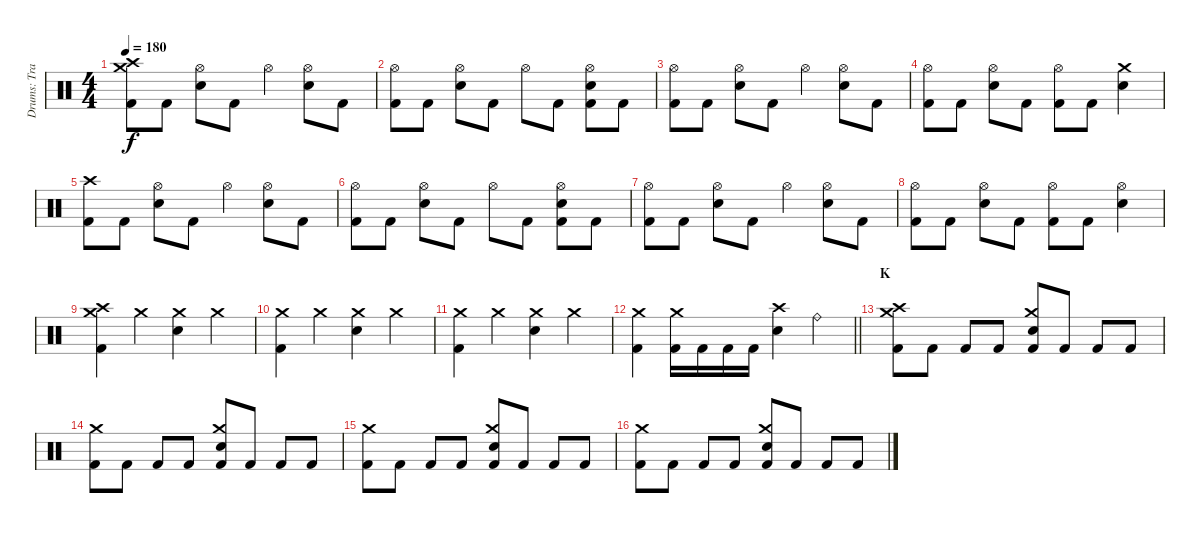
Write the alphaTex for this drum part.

\track ("Drums: Travis Clarke" "Drums: Tra") {instrument percussion}
\staff {score}
\articulation defaults
\ts (4 4)
\tempo 180
\clef neutral
\ks c
("Kick (hit) 2" "Crash high (hit)" "Crash medium (hit)").8{dy f} "Kick (hit) 2".8 ("Snare (hit) 2" "Hi-Hat (open)").8 "Kick (hit) 2".8 "Hi-Hat (open)".4 ("Snare (hit) 2" "Hi-Hat (open)").8 "Kick (hit) 2".8 |
("Kick (hit) 2" "Hi-Hat (open)").8 "Kick (hit) 2".8 ("Snare (hit) 2" "Hi-Hat (open)").8 "Kick (hit) 2".8 "Hi-Hat (open)".8 "Kick (hit) 2".8 ("Kick (hit) 2" "Snare (hit) 2" "Hi-Hat (open)").8 "Kick (hit) 2".8 |
("Kick (hit) 2" "Hi-Hat (open)").8 "Kick (hit) 2".8 ("Snare (hit) 2" "Hi-Hat (open)").8 "Kick (hit) 2".8 "Hi-Hat (open)".4 ("Snare (hit) 2" "Hi-Hat (open)").8 "Kick (hit) 2".8 |
("Kick (hit) 2" "Hi-Hat (open)").8 "Kick (hit) 2".8 ("Snare (hit) 2" "Hi-Hat (open)").8 "Kick (hit) 2".8 ("Kick (hit) 2" "Hi-Hat (open)").8 "Kick (hit) 2".8 ("Snare (hit) 2" "Crash medium (hit)").4 |
("Kick (hit) 2" "Crash high (hit)").8 "Kick (hit) 2".8 ("Snare (hit) 2" "Hi-Hat (open)").8 "Kick (hit) 2".8 "Hi-Hat (open)".4 ("Snare (hit) 2" "Hi-Hat (open)").8 "Kick (hit) 2".8 |
("Kick (hit) 2" "Hi-Hat (open)").8 "Kick (hit) 2".8 ("Snare (hit) 2" "Hi-Hat (open)").8 "Kick (hit) 2".8 "Hi-Hat (open)".8 "Kick (hit) 2".8 ("Kick (hit) 2" "Snare (hit) 2" "Hi-Hat (open)").8 "Kick (hit) 2".8 |
("Kick (hit) 2" "Hi-Hat (open)").8 "Kick (hit) 2".8 ("Snare (hit) 2" "Hi-Hat (open)").8 "Kick (hit) 2".8 "Hi-Hat (open)".4 ("Snare (hit) 2" "Hi-Hat (open)").8 "Kick (hit) 2".8 |
("Kick (hit) 2" "Hi-Hat (open)").8 "Kick (hit) 2".8 ("Snare (hit) 2" "Hi-Hat (open)").8 "Kick (hit) 2".8 ("Kick (hit) 2" "Hi-Hat (open)").8 "Kick (hit) 2".8 ("Snare (hit) 2" "Hi-Hat (open)").4 |
("Kick (hit) 2" "Crash high (hit)" "Crash medium (hit)").4 "Crash medium (hit)".4 ("Snare (hit) 2" "Crash medium (hit)").4 "Crash medium (hit)".4 |
("Kick (hit) 2" "Crash medium (hit)").4 "Crash medium (hit)".4 ("Snare (hit) 2" "Crash medium (hit)").4 "Crash medium (hit)".4 |
("Kick (hit) 2" "Crash medium (hit)").4 "Crash medium (hit)".4 ("Snare (hit) 2" "Crash medium (hit)").4 "Crash medium (hit)".4 |
\barLineRight lightlight
("Kick (hit) 2" "Crash medium (hit)").4 ("Kick (hit) 2" "Crash medium (hit)").16 "Kick (hit) 2".16 "Kick (hit) 2".16 "Kick (hit) 2".16 ("Snare (hit) 2" "Crash high (hit)").4 "Ride (bell)".4 |
\section ("" "K")
("Kick (hit) 2" "Crash high (hit)" "Crash medium (hit)").8 "Kick (hit) 2".8 "Kick (hit) 2".8 "Kick (hit) 2".8 ("Kick (hit) 2" "Snare (hit) 2" "Crash medium (hit)").8 "Kick (hit) 2".8 "Kick (hit) 2".8 "Kick (hit) 2".8 |
("Kick (hit) 2" "Crash medium (hit)").8 "Kick (hit) 2".8 "Kick (hit) 2".8 "Kick (hit) 2".8 ("Kick (hit) 2" "Snare (hit) 2" "Crash medium (hit)").8 "Kick (hit) 2".8 "Kick (hit) 2".8 "Kick (hit) 2".8 |
("Kick (hit) 2" "Crash medium (hit)").8 "Kick (hit) 2".8 "Kick (hit) 2".8 "Kick (hit) 2".8 ("Kick (hit) 2" "Snare (hit) 2" "Crash medium (hit)").8 "Kick (hit) 2".8 "Kick (hit) 2".8 "Kick (hit) 2".8 |
("Kick (hit) 2" "Crash medium (hit)").8 "Kick (hit) 2".8 "Kick (hit) 2".8 "Kick (hit) 2".8 ("Kick (hit) 2" "Snare (hit) 2" "Crash medium (hit)").8 "Kick (hit) 2".8 "Kick (hit) 2".8 "Kick (hit) 2".8
